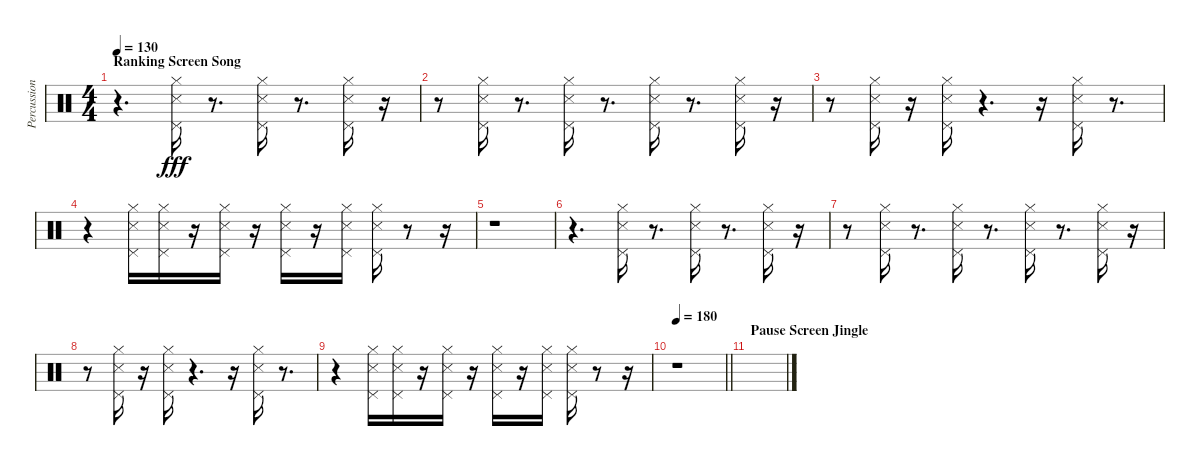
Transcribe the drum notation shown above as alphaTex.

\track ("Percussion" "Percussion") {instrument percussion}
\staff {score}
\articulation defaults
\ts (4 4)
\section ("" "Ranking Screen Song")
\tempo 130
\clef neutral
\ks c
r.4{d dy fff} ("Hi-Hat (closed)" "Pedal Hi-Hat (hit)" "Snare (side stick) 3").16 r.8{d} ("Hi-Hat (closed)" "Pedal Hi-Hat (hit)" "Snare (side stick) 3").16 r.8{d} ("Hi-Hat (closed)" "Pedal Hi-Hat (hit)" "Snare (side stick) 3").16 r.16 |
r.8 ("Hi-Hat (closed)" "Pedal Hi-Hat (hit)" "Snare (side stick) 3").16 r.8{d} ("Hi-Hat (closed)" "Pedal Hi-Hat (hit)" "Snare (side stick) 3").16 r.8{d} ("Hi-Hat (closed)" "Pedal Hi-Hat (hit)" "Snare (side stick) 3").16 r.8{d} ("Hi-Hat (closed)" "Pedal Hi-Hat (hit)" "Snare (side stick) 3").16 r.16 |
r.8 ("Hi-Hat (closed)" "Pedal Hi-Hat (hit)" "Snare (side stick) 3").16 r.16 ("Hi-Hat (closed)" "Pedal Hi-Hat (hit)" "Snare (side stick) 3").16 r.4{d} r.16 ("Pedal Hi-Hat (hit)" "Snare (side stick) 3" "Hi-Hat (closed)").16 r.8{d} |
r.4 ("Hi-Hat (closed)" "Pedal Hi-Hat (hit)" "Snare (side stick) 3").16 ("Hi-Hat (closed)" "Pedal Hi-Hat (hit)" "Snare (side stick) 3").16 r.16 ("Hi-Hat (closed)" "Pedal Hi-Hat (hit)" "Snare (side stick) 3").16 r.16 ("Hi-Hat (closed)" "Pedal Hi-Hat (hit)" "Snare (side stick) 3").16 r.16 ("Hi-Hat (closed)" "Pedal Hi-Hat (hit)" "Snare (side stick) 3").16 ("Hi-Hat (closed)" "Pedal Hi-Hat (hit)" "Snare (side stick) 3").16 r.8 r.16 |
r.1 |
r.4{d} ("Hi-Hat (closed)" "Pedal Hi-Hat (hit)" "Snare (side stick) 3").16 r.8{d} ("Hi-Hat (closed)" "Pedal Hi-Hat (hit)" "Snare (side stick) 3").16 r.8{d} ("Hi-Hat (closed)" "Pedal Hi-Hat (hit)" "Snare (side stick) 3").16 r.16 |
r.8 ("Hi-Hat (closed)" "Pedal Hi-Hat (hit)" "Snare (side stick) 3").16 r.8{d} ("Hi-Hat (closed)" "Pedal Hi-Hat (hit)" "Snare (side stick) 3").16 r.8{d} ("Hi-Hat (closed)" "Pedal Hi-Hat (hit)" "Snare (side stick) 3").16 r.8{d} ("Hi-Hat (closed)" "Pedal Hi-Hat (hit)" "Snare (side stick) 3").16 r.16 |
r.8 ("Hi-Hat (closed)" "Pedal Hi-Hat (hit)" "Snare (side stick) 3").16 r.16 ("Hi-Hat (closed)" "Pedal Hi-Hat (hit)" "Snare (side stick) 3").16 r.4{d} r.16 ("Pedal Hi-Hat (hit)" "Snare (side stick) 3" "Hi-Hat (closed)").16 r.8{d} |
r.4 ("Hi-Hat (closed)" "Pedal Hi-Hat (hit)" "Snare (side stick) 3").16 ("Hi-Hat (closed)" "Pedal Hi-Hat (hit)" "Snare (side stick) 3").16 r.16 ("Hi-Hat (closed)" "Pedal Hi-Hat (hit)" "Snare (side stick) 3").16 r.16 ("Hi-Hat (closed)" "Pedal Hi-Hat (hit)" "Snare (side stick) 3").16 r.16 ("Hi-Hat (closed)" "Pedal Hi-Hat (hit)" "Snare (side stick) 3").16 ("Hi-Hat (closed)" "Pedal Hi-Hat (hit)" "Snare (side stick) 3").16 r.8 r.16 |
\tempo 180
\barLineRight lightlight
r.1 |
\section ("" "Pause Screen Jingle")
